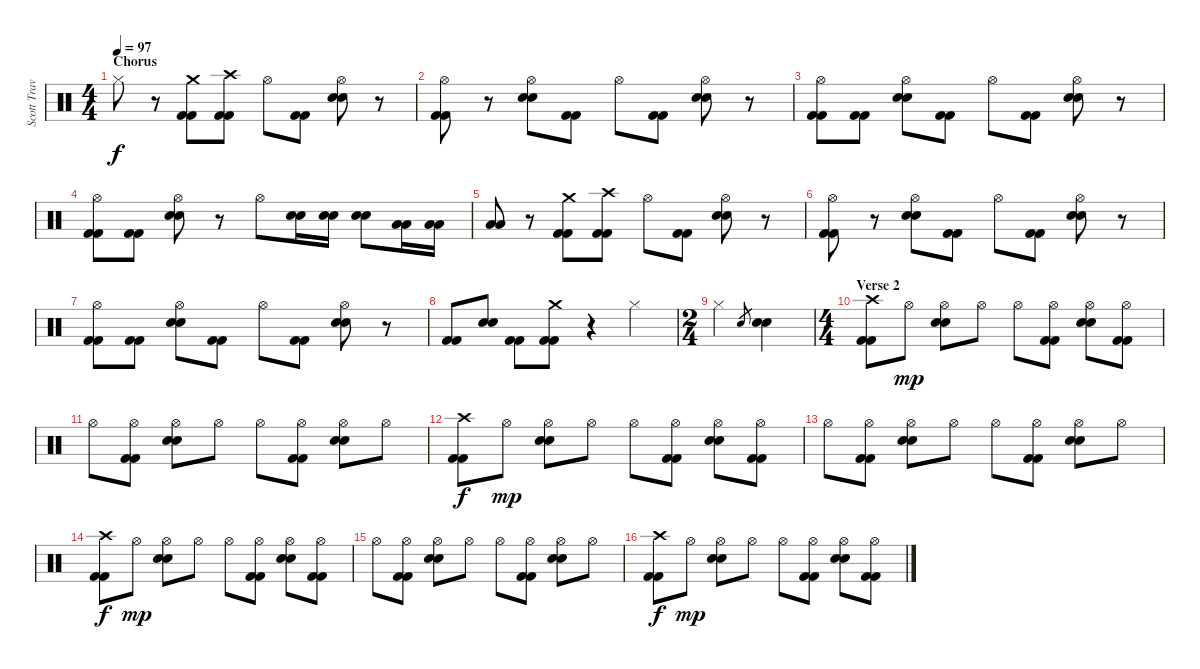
\track ("Scott Travis" "Scott Trav") {instrument percussion}
\staff {score}
\articulation defaults
\ts (4 4)
\section ("" "Chorus")
\tempo 97
\clef neutral
\ks c "Hi-Hat (closed)".8{dy f}
r.8 ("Crash medium (hit)" "Kick (hit) 2" "Kick (hit) 2").8 ("Crash high (hit)" "Kick (hit) 2" "Kick (hit) 2").8 "Hi-Hat (open)".8 ("Kick (hit) 2" "Kick (hit) 2").8 ("Hi-Hat (open)" "Snare (hit) 2" "Snare (hit) 2").8 r.8 |
("Hi-Hat (open)" "Kick (hit) 2" "Kick (hit) 2").8 r.8 ("Hi-Hat (open)" "Snare (hit) 2" "Snare (hit) 2").8 ("Kick (hit) 2" "Kick (hit) 2").8 "Hi-Hat (open)".8 ("Kick (hit) 2" "Kick (hit) 2").8 ("Hi-Hat (open)" "Snare (hit) 2" "Snare (hit) 2").8 r.8 |
("Hi-Hat (open)" "Kick (hit) 2" "Kick (hit) 2").8 ("Kick (hit) 2" "Kick (hit) 2").8 ("Hi-Hat (open)" "Snare (hit) 2" "Snare (hit) 2").8 ("Kick (hit) 2" "Kick (hit) 2").8 "Hi-Hat (open)".8 ("Kick (hit) 2" "Kick (hit) 2").8 ("Hi-Hat (open)" "Snare (hit) 2" "Snare (hit) 2").8 r.8 |
("Hi-Hat (open)" "Kick (hit) 2" "Kick (hit) 2").8 ("Kick (hit) 2" "Kick (hit) 2").8 ("Hi-Hat (open)" "Snare (hit) 2" "Snare (hit) 2").8 r.8 "Hi-Hat (open)".8 ("Snare (hit) 2" "Snare (hit) 2").16 ("Snare (hit) 2" "Snare (hit) 2").16 ("Snare (hit) 2" "Snare (hit) 2").8 ("Low Tom (hit)" "Low Tom (hit)").16 ("Low Tom (hit)" "Low Tom (hit)").16 |
("Low Tom (hit)" "Low Tom (hit)").8 r.8 ("Crash medium (hit)" "Kick (hit) 2" "Kick (hit) 2").8 ("Crash high (hit)" "Kick (hit) 2" "Kick (hit) 2").8 "Hi-Hat (open)".8 ("Kick (hit) 2" "Kick (hit) 2").8 ("Hi-Hat (open)" "Snare (hit) 2" "Snare (hit) 2").8 r.8 |
("Hi-Hat (open)" "Kick (hit) 2" "Kick (hit) 2").8 r.8 ("Hi-Hat (open)" "Snare (hit) 2" "Snare (hit) 2").8 ("Kick (hit) 2" "Kick (hit) 2").8 "Hi-Hat (open)".8 ("Kick (hit) 2" "Kick (hit) 2").8 ("Hi-Hat (open)" "Snare (hit) 2" "Snare (hit) 2").8 r.8 |
("Hi-Hat (open)" "Kick (hit) 2" "Kick (hit) 2").8 ("Kick (hit) 2" "Kick (hit) 2").8 ("Hi-Hat (open)" "Snare (hit) 2" "Snare (hit) 2").8 ("Kick (hit) 2" "Kick (hit) 2").8 "Hi-Hat (open)".8 ("Kick (hit) 2" "Kick (hit) 2").8 ("Hi-Hat (open)" "Snare (hit) 2" "Snare (hit) 2").8 r.8 |
("Kick (hit) 2" "Kick (hit) 2").8 ("Snare (hit) 2" "Snare (hit) 2").8 ("Kick (hit) 2" "Kick (hit) 2").8 ("Crash medium (hit)" "Kick (hit) 2" "Kick (hit) 2").8 r.4 "Hi-Hat (closed)".4 |
\ts (2 4)
"Hi-Hat (closed)".4 "Snare (hit) 2".8{gr} ("Snare (hit) 2" "Snare (hit) 2").4 |
\ts (4 4)
\section ("" "Verse 2")
("Crash high (hit)" "Kick (hit) 2" "Kick (hit) 2").8 "Hi-Hat (open)".8{dy mp} ("Hi-Hat (open)" "Snare (hit) 2" "Snare (hit) 2").8 "Hi-Hat (open)".8 "Hi-Hat (open)".8 ("Hi-Hat (open)" "Kick (hit) 2" "Kick (hit) 2").8 ("Hi-Hat (open)" "Snare (hit) 2" "Snare (hit) 2").8 ("Hi-Hat (open)" "Kick (hit) 2" "Kick (hit) 2").8 |
"Hi-Hat (open)".8 ("Hi-Hat (open)" "Kick (hit) 2" "Kick (hit) 2").8 ("Hi-Hat (open)" "Snare (hit) 2" "Snare (hit) 2").8 "Hi-Hat (open)".8 "Hi-Hat (open)".8 ("Hi-Hat (open)" "Kick (hit) 2" "Kick (hit) 2").8 ("Hi-Hat (open)" "Snare (hit) 2" "Snare (hit) 2").8 "Hi-Hat (open)".8 |
("Crash high (hit)" "Kick (hit) 2" "Kick (hit) 2").8{dy f} "Hi-Hat (open)".8{dy mp} ("Hi-Hat (open)" "Snare (hit) 2" "Snare (hit) 2").8 "Hi-Hat (open)".8 "Hi-Hat (open)".8 ("Hi-Hat (open)" "Kick (hit) 2" "Kick (hit) 2").8 ("Hi-Hat (open)" "Snare (hit) 2" "Snare (hit) 2").8 ("Hi-Hat (open)" "Kick (hit) 2" "Kick (hit) 2").8 |
"Hi-Hat (open)".8 ("Hi-Hat (open)" "Kick (hit) 2" "Kick (hit) 2").8 ("Hi-Hat (open)" "Snare (hit) 2" "Snare (hit) 2").8 "Hi-Hat (open)".8 "Hi-Hat (open)".8 ("Hi-Hat (open)" "Kick (hit) 2" "Kick (hit) 2").8 ("Hi-Hat (open)" "Snare (hit) 2" "Snare (hit) 2").8 "Hi-Hat (open)".8 |
("Crash high (hit)" "Kick (hit) 2" "Kick (hit) 2").8{dy f} "Hi-Hat (open)".8{dy mp} ("Hi-Hat (open)" "Snare (hit) 2" "Snare (hit) 2").8 "Hi-Hat (open)".8 "Hi-Hat (open)".8 ("Hi-Hat (open)" "Kick (hit) 2" "Kick (hit) 2").8 ("Hi-Hat (open)" "Snare (hit) 2" "Snare (hit) 2").8 ("Hi-Hat (open)" "Kick (hit) 2" "Kick (hit) 2").8 |
"Hi-Hat (open)".8 ("Hi-Hat (open)" "Kick (hit) 2" "Kick (hit) 2").8 ("Hi-Hat (open)" "Snare (hit) 2" "Snare (hit) 2").8 "Hi-Hat (open)".8 "Hi-Hat (open)".8 ("Hi-Hat (open)" "Kick (hit) 2" "Kick (hit) 2").8 ("Hi-Hat (open)" "Snare (hit) 2" "Snare (hit) 2").8 "Hi-Hat (open)".8 |
("Crash high (hit)" "Kick (hit) 2" "Kick (hit) 2").8{dy f} "Hi-Hat (open)".8{dy mp} ("Hi-Hat (open)" "Snare (hit) 2" "Snare (hit) 2").8 "Hi-Hat (open)".8 "Hi-Hat (open)".8 ("Hi-Hat (open)" "Kick (hit) 2" "Kick (hit) 2").8 ("Hi-Hat (open)" "Snare (hit) 2" "Snare (hit) 2").8 ("Hi-Hat (open)" "Kick (hit) 2" "Kick (hit) 2").8
